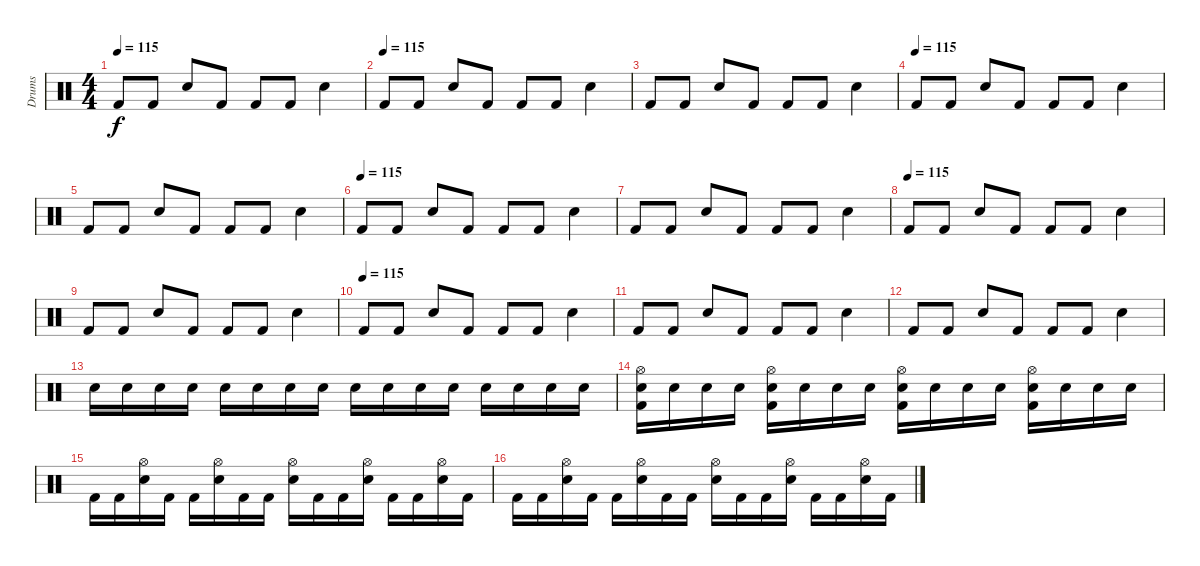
\track ("Drums" "Drums") {instrument percussion}
\staff {score}
\articulation defaults
\ts (4 4)
\tempo 115
\clef neutral
\ks c "Kick (hit) 2".8{dy f} "Kick (hit) 2".8 "Snare (hit) 2".8 "Kick (hit) 2".8 "Kick (hit) 2".8 "Kick (hit) 2".8 "Snare (hit) 2".4
|
\tempo (115)
"Kick (hit) 2".8{volume 10} "Kick (hit) 2".8 "Snare (hit) 2".8 "Kick (hit) 2".8 "Kick (hit) 2".8 "Kick (hit) 2".8 "Snare (hit) 2".4 |
"Kick (hit) 2".8 "Kick (hit) 2".8 "Snare (hit) 2".8 "Kick (hit) 2".8 "Kick (hit) 2".8 "Kick (hit) 2".8 "Snare (hit) 2".4 |
\tempo (115)
"Kick (hit) 2".8{volume 10} "Kick (hit) 2".8 "Snare (hit) 2".8 "Kick (hit) 2".8 "Kick (hit) 2".8 "Kick (hit) 2".8 "Snare (hit) 2".4 |
"Kick (hit) 2".8 "Kick (hit) 2".8 "Snare (hit) 2".8 "Kick (hit) 2".8 "Kick (hit) 2".8 "Kick (hit) 2".8 "Snare (hit) 2".4 |
\tempo (115)
"Kick (hit) 2".8{volume 10} "Kick (hit) 2".8 "Snare (hit) 2".8 "Kick (hit) 2".8 "Kick (hit) 2".8 "Kick (hit) 2".8 "Snare (hit) 2".4 |
"Kick (hit) 2".8 "Kick (hit) 2".8 "Snare (hit) 2".8 "Kick (hit) 2".8 "Kick (hit) 2".8 "Kick (hit) 2".8 "Snare (hit) 2".4 |
\tempo (115)
"Kick (hit) 2".8{volume 10} "Kick (hit) 2".8 "Snare (hit) 2".8 "Kick (hit) 2".8 "Kick (hit) 2".8 "Kick (hit) 2".8 "Snare (hit) 2".4 |
"Kick (hit) 2".8 "Kick (hit) 2".8 "Snare (hit) 2".8 "Kick (hit) 2".8 "Kick (hit) 2".8 "Kick (hit) 2".8 "Snare (hit) 2".4 |
\tempo (115)
"Kick (hit) 2".8{volume 10} "Kick (hit) 2".8 "Snare (hit) 2".8 "Kick (hit) 2".8 "Kick (hit) 2".8 "Kick (hit) 2".8 "Snare (hit) 2".4 |
"Kick (hit) 2".8 "Kick (hit) 2".8 "Snare (hit) 2".8 "Kick (hit) 2".8 "Kick (hit) 2".8 "Kick (hit) 2".8 "Snare (hit) 2".4 |
"Kick (hit) 2".8{volume 10} "Kick (hit) 2".8 "Snare (hit) 2".8 "Kick (hit) 2".8 "Kick (hit) 2".8 "Kick (hit) 2".8 "Snare (hit) 2".4 |
"Snare (hit) 2".16 "Snare (hit) 2".16 "Snare (hit) 2".16 "Snare (hit) 2".16 "Snare (hit) 2".16 "Snare (hit) 2".16 "Snare (hit) 2".16 "Snare (hit) 2".16 "Snare (hit) 2".16 "Snare (hit) 2".16 "Snare (hit) 2".16 "Snare (hit) 2".16 "Snare (hit) 2".16 "Snare (hit) 2".16 "Snare (hit) 2".16 "Snare (hit) 2".16 |
("Kick (hit) 2" "Snare (hit) 2" "Hi-Hat (open)").16 "Snare (hit) 2".16 "Snare (hit) 2".16 "Snare (hit) 2".16 ("Kick (hit) 2" "Snare (hit) 2" "Hi-Hat (open)").16 "Snare (hit) 2".16 "Snare (hit) 2".16 "Snare (hit) 2".16 ("Kick (hit) 2" "Snare (hit) 2" "Hi-Hat (open)").16 "Snare (hit) 2".16 "Snare (hit) 2".16 "Snare (hit) 2".16 ("Kick (hit) 2" "Snare (hit) 2" "Hi-Hat (open)").16 "Snare (hit) 2".16 "Snare (hit) 2".16 "Snare (hit) 2".16 |
"Kick (hit) 2".16 "Kick (hit) 2".16 ("Snare (hit) 2" "Hi-Hat (open)").16 "Kick (hit) 2".16 "Kick (hit) 2".16 ("Snare (hit) 2" "Hi-Hat (open)").16 "Kick (hit) 2".16 "Kick (hit) 2".16 ("Snare (hit) 2" "Hi-Hat (open)").16 "Kick (hit) 2".16 "Kick (hit) 2".16 ("Snare (hit) 2" "Hi-Hat (open)").16 "Kick (hit) 2".16 "Kick (hit) 2".16 ("Snare (hit) 2" "Hi-Hat (open)").16 "Kick (hit) 2".16 |
"Kick (hit) 2".16 "Kick (hit) 2".16 ("Snare (hit) 2" "Hi-Hat (open)").16 "Kick (hit) 2".16 "Kick (hit) 2".16 ("Snare (hit) 2" "Hi-Hat (open)").16 "Kick (hit) 2".16 "Kick (hit) 2".16 ("Snare (hit) 2" "Hi-Hat (open)").16 "Kick (hit) 2".16 "Kick (hit) 2".16 ("Snare (hit) 2" "Hi-Hat (open)").16 "Kick (hit) 2".16 "Kick (hit) 2".16 ("Snare (hit) 2" "Hi-Hat (open)").16 "Kick (hit) 2".16
